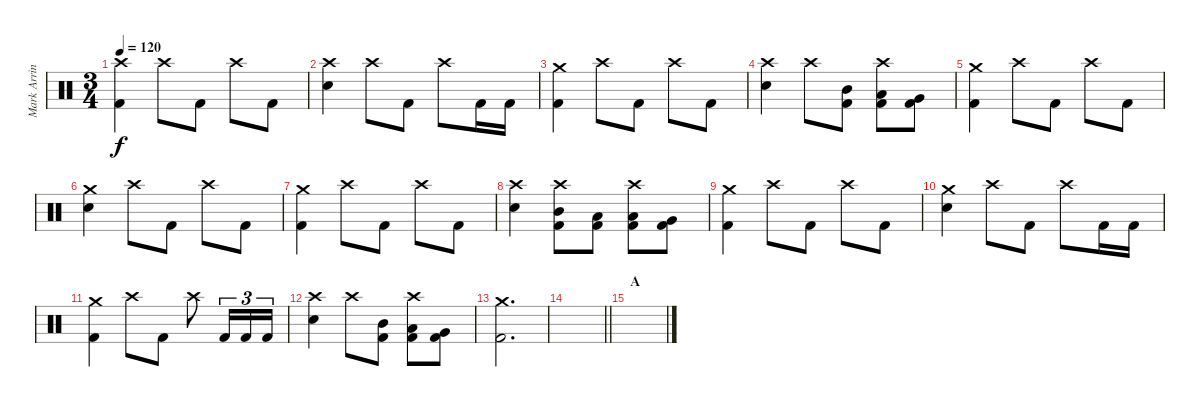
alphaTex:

\track ("Mark Arrington Drums" "Mark Arrin") {instrument percussion}
\staff {score}
\articulation defaults
\ts (3 4)
\tempo 120
\clef neutral
\ks c
("Crash high (hit)" "Kick (hit) 2").4{dy f} "Crash high (hit)".8 "Kick (hit) 2".8 "Crash high (hit)".8 "Kick (hit) 2".8 |
("Crash high (hit)" "Electric Snare (hit)").4 "Crash high (hit)".8 "Kick (hit) 2".8 "Crash high (hit)".8 "Kick (hit) 2".16 "Kick (hit) 2".16 |
("Crash medium (hit)" "Kick (hit) 2").4 "Crash high (hit)".8 "Kick (hit) 2".8 "Crash high (hit)".8 "Kick (hit) 2".8 |
("Crash high (hit)" "Electric Snare (hit)").4 "Crash high (hit)".8 ("Mid Tom (hit)" "Kick (hit) 2").8 ("Crash high (hit)" "Low Tom (hit)" "Kick (hit) 2").8 ("Very Low Tom (hit)" "Kick (hit) 2").8 |
("Crash medium (hit)" "Kick (hit) 2").4 "Crash high (hit)".8 "Kick (hit) 2".8 "Crash high (hit)".8 "Kick (hit) 2".8 |
("Crash medium (hit)" "Electric Snare (hit)").4 "Crash high (hit)".8 "Kick (hit) 2".8 "Crash high (hit)".8 "Kick (hit) 2".8 |
("Crash medium (hit)" "Kick (hit) 2").4 "Crash high (hit)".8 "Kick (hit) 2".8 "Crash high (hit)".8 "Kick (hit) 2".8 |
("Crash high (hit)" "Electric Snare (hit)").4 ("Crash high (hit)" "Mid Tom (hit)" "Kick (hit) 2").8 ("Low Tom (hit)" "Kick (hit) 2").8 ("Crash high (hit)" "Low Tom (hit)" "Kick (hit) 2").8 ("Very Low Tom (hit)" "Kick (hit) 2").8 |
("Crash medium (hit)" "Kick (hit) 2").4 "Crash high (hit)".8 "Kick (hit) 2".8 "Crash high (hit)".8 "Kick (hit) 2".8 |
("Crash medium (hit)" "Electric Snare (hit)").4 "Crash high (hit)".8 "Kick (hit) 2".8 "Crash high (hit)".8 "Kick (hit) 2".16 "Kick (hit) 2".16 |
("Crash medium (hit)" "Kick (hit) 2").4 "Crash high (hit)".8 "Kick (hit) 2".8 "Crash high (hit)".8 "Kick (hit) 2".16{tu (3 2)} "Kick (hit) 2".16{tu (3 2)} "Kick (hit) 2".16{tu (3 2)} |
("Crash high (hit)" "Electric Snare (hit)").4 "Crash high (hit)".8 ("Mid Tom (hit)" "Kick (hit) 2").8 ("Crash high (hit)" "Low Tom (hit)" "Kick (hit) 2").8 ("Very Low Tom (hit)" "Kick (hit) 2").8 |
("Crash medium (hit)" "Kick (hit) 2").2{d} |
\barLineRight lightlight
|
\section ("" "A")
